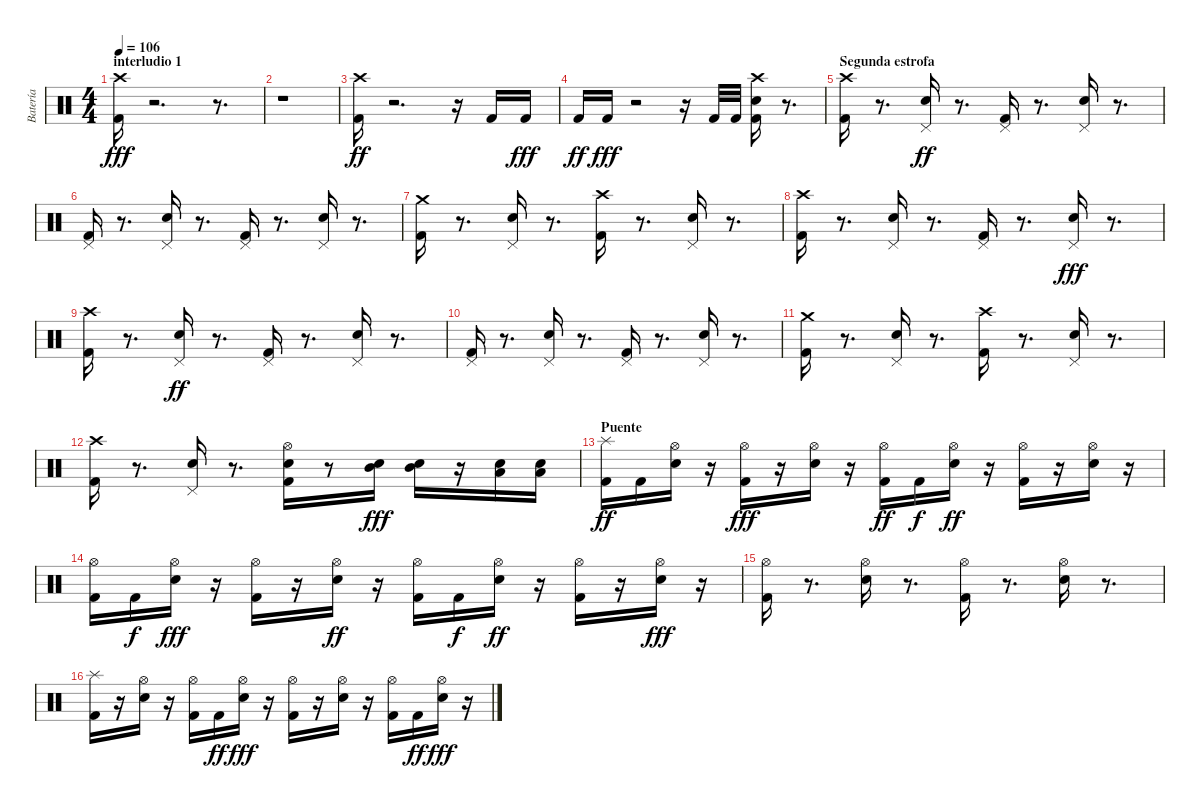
\track ("Batería" "Batería") {instrument percussion}
\staff {score}
\articulation defaults
\ts (4 4)
\section ("" "interludio 1")
\tempo 106
\clef neutral
\ks c
("Crash high (hit)" "Kick (hit) 2").16{dy fff} r.2{d} r.8{d} |
r.1 |
("Crash high (hit)" "Kick (hit) 2").16{dy ff} r.2{d} r.16 "Kick (hit) 2".16 "Kick (hit) 2".16{dy fff} |
"Kick (hit) 2".16{dy ff} "Kick (hit) 2".16{dy fff} r.2 r.16 "Kick (hit) 2".32 "Kick (hit) 2".32 ("Crash high (hit)" "Electric Snare (hit)" "Kick (hit) 2").16 r.8{d} |
\section ("" "Segunda estrofa")
("Crash high (hit)" "Kick (hit) 2").16 r.8{d} ("Pedal Hi-Hat (hit)" "Electric Snare (hit)").16{dy ff} r.8{d} ("Pedal Hi-Hat (hit)" "Kick (hit) 2").16 r.8{d} ("Pedal Hi-Hat (hit)" "Electric Snare (hit)").16 r.8{d} |
("Pedal Hi-Hat (hit)" "Kick (hit) 2").16 r.8{d} ("Pedal Hi-Hat (hit)" "Electric Snare (hit)").16 r.8{d} ("Pedal Hi-Hat (hit)" "Kick (hit) 2").16 r.8{d} ("Pedal Hi-Hat (hit)" "Electric Snare (hit)").16 r.8{d} |
("Crash medium (hit)" "Kick (hit) 2").16 r.8{d} ("Pedal Hi-Hat (hit)" "Electric Snare (hit)").16 r.8{d} ("Crash high (hit)" "Kick (hit) 2").16 r.8{d} ("Pedal Hi-Hat (hit)" "Electric Snare (hit)").16 r.8{d} |
("Crash high (hit)" "Kick (hit) 2").16 r.8{d} ("Pedal Hi-Hat (hit)" "Electric Snare (hit)").16 r.8{d} ("Pedal Hi-Hat (hit)" "Kick (hit) 2").16 r.8{d} ("Pedal Hi-Hat (hit)" "Electric Snare (hit)").16{dy fff} r.8{d} |
("Crash high (hit)" "Kick (hit) 2").16 r.8{d} ("Pedal Hi-Hat (hit)" "Electric Snare (hit)").16{dy ff} r.8{d} ("Pedal Hi-Hat (hit)" "Kick (hit) 2").16 r.8{d} ("Pedal Hi-Hat (hit)" "Electric Snare (hit)").16 r.8{d} |
("Pedal Hi-Hat (hit)" "Kick (hit) 2").16 r.8{d} ("Pedal Hi-Hat (hit)" "Electric Snare (hit)").16 r.8{d} ("Pedal Hi-Hat (hit)" "Kick (hit) 2").16 r.8{d} ("Pedal Hi-Hat (hit)" "Electric Snare (hit)").16 r.8{d} |
("Crash medium (hit)" "Kick (hit) 2").16 r.8{d} ("Pedal Hi-Hat (hit)" "Electric Snare (hit)").16 r.8{d} ("Crash high (hit)" "Kick (hit) 2").16 r.8{d} ("Pedal Hi-Hat (hit)" "Electric Snare (hit)").16 r.8{d} |
("Crash high (hit)" "Kick (hit) 2").16 r.8{d} ("Pedal Hi-Hat (hit)" "Electric Snare (hit)").16 r.8{d} ("Hi-Hat (open)" "Electric Snare (hit)" "Kick (hit) 2").16 r.8 ("Electric Snare (hit)" "Mid Tom (hit)").16{dy fff} ("Electric Snare (hit)" "Mid Tom (hit)").16 r.16 ("Electric Snare (hit)" "Low Tom (hit)").16 ("Electric Snare (hit)" "Low Tom (hit)").16 |
\section ("" "Puente")
("Splash (hit)" "Kick (hit) 2").16{dy ff} "Kick (hit) 2".16 ("Hi-Hat (open)" "Electric Snare (hit)").16 r.16 ("Hi-Hat (open)" "Kick (hit) 2").16{dy fff} r.16 ("Hi-Hat (open)" "Electric Snare (hit)").16 r.16 ("Hi-Hat (open)" "Kick (hit) 2").16{dy ff} "Kick (hit) 2".16{dy f} ("Hi-Hat (open)" "Electric Snare (hit)").16{dy ff} r.16 ("Hi-Hat (open)" "Kick (hit) 2").16 r.16 ("Hi-Hat (open)" "Electric Snare (hit)").16 r.16 |
("Hi-Hat (open)" "Kick (hit) 2").16 "Kick (hit) 2".16{dy f} ("Hi-Hat (open)" "Electric Snare (hit)").16{dy fff} r.16 ("Hi-Hat (open)" "Kick (hit) 2").16 r.16 ("Hi-Hat (open)" "Electric Snare (hit)").16{dy ff} r.16 ("Hi-Hat (open)" "Kick (hit) 2").16 "Kick (hit) 2".16{dy f} ("Hi-Hat (open)" "Electric Snare (hit)").16{dy ff} r.16 ("Hi-Hat (open)" "Kick (hit) 2").16 r.16 ("Hi-Hat (open)" "Electric Snare (hit)").16{dy fff} r.16 |
("Hi-Hat (open)" "Kick (hit) 2").16 r.8{d} ("Hi-Hat (open)" "Electric Snare (hit)").16 r.8{d} ("Hi-Hat (open)" "Kick (hit) 2").16 r.8{d} ("Hi-Hat (open)" "Electric Snare (hit)").16 r.8{d} |
("Splash (hit)" "Kick (hit) 2").16 r.16 ("Hi-Hat (open)" "Electric Snare (hit)").16 r.16 ("Hi-Hat (open)" "Kick (hit) 2").16 "Kick (hit) 2".16{dy ff} ("Hi-Hat (open)" "Electric Snare (hit)").16{dy fff} r.16 ("Hi-Hat (open)" "Kick (hit) 2").16 r.16 ("Hi-Hat (open)" "Electric Snare (hit)").16 r.16 ("Hi-Hat (open)" "Kick (hit) 2").16 "Kick (hit) 2".16{dy ff} ("Hi-Hat (open)" "Electric Snare (hit)").16{dy fff} r.16
